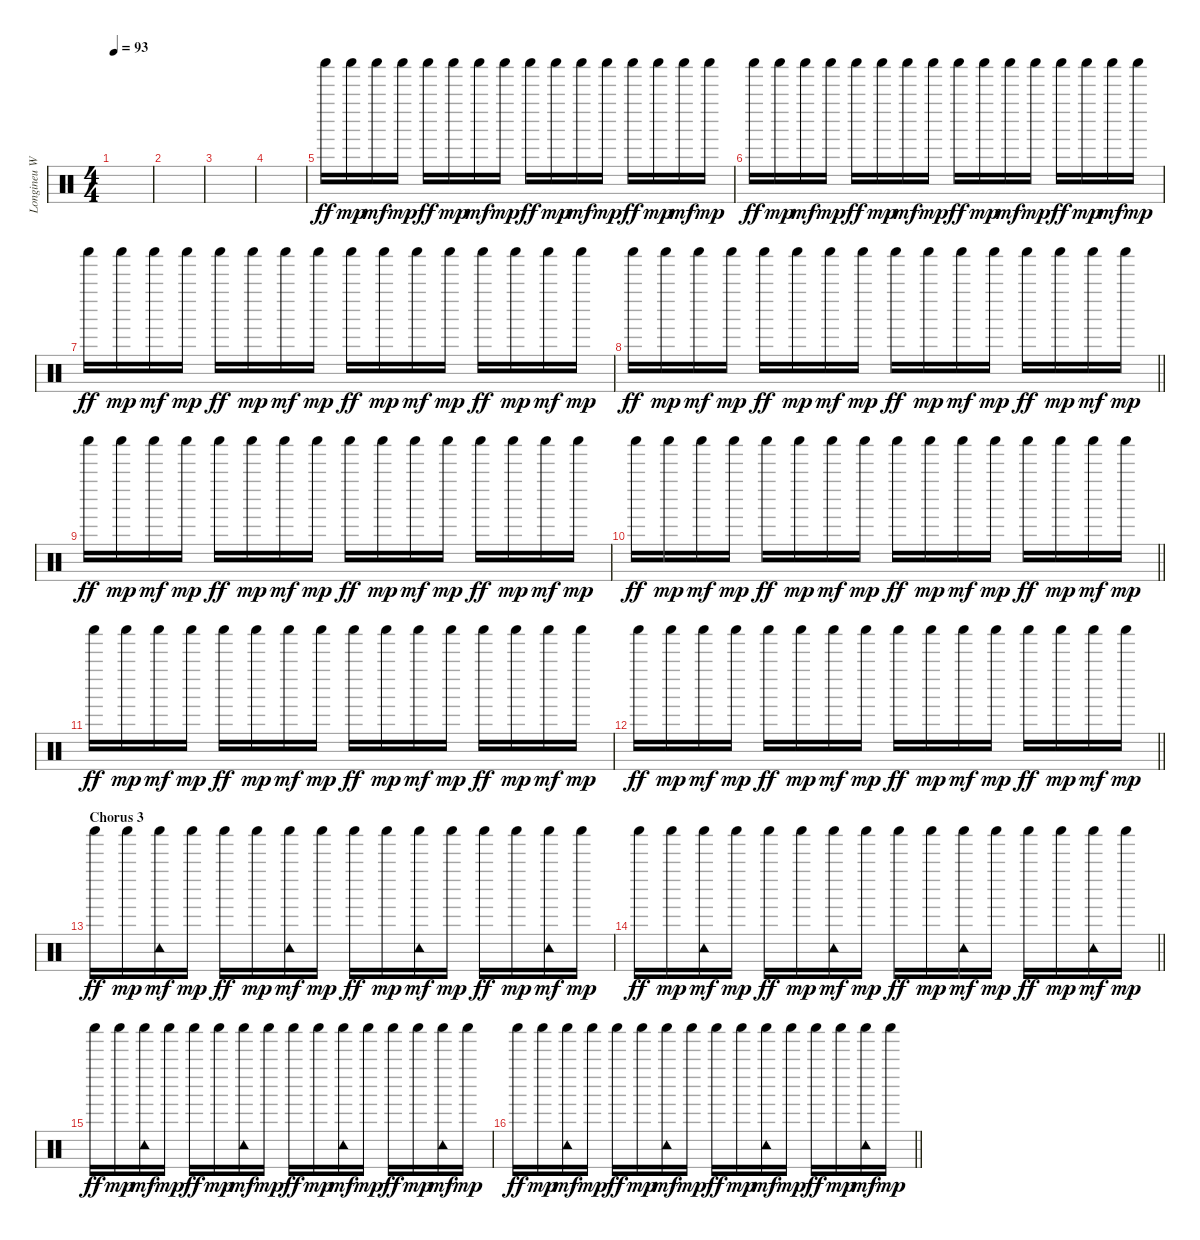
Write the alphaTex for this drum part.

\track ("Longineu W. Parsons |||" "Longineu W") {instrument percussion}
\staff {score}
\articulation defaults
\ts (4 4)
\tempo 93
\clef neutral
\ks c
|
|
|
|
"Shaker (hit)".16{dy ff} "Shaker (hit)".16{dy mp} "Shaker (hit)".16{dy mf} "Shaker (hit)".16{dy mp} "Shaker (hit)".16{dy ff} "Shaker (hit)".16{dy mp} "Shaker (hit)".16{dy mf} "Shaker (hit)".16{dy mp} "Shaker (hit)".16{dy ff} "Shaker (hit)".16{dy mp} "Shaker (hit)".16{dy mf} "Shaker (hit)".16{dy mp} "Shaker (hit)".16{dy ff} "Shaker (hit)".16{dy mp} "Shaker (hit)".16{dy mf} "Shaker (hit)".16{dy mp} |
"Shaker (hit)".16{dy ff} "Shaker (hit)".16{dy mp} "Shaker (hit)".16{dy mf} "Shaker (hit)".16{dy mp} "Shaker (hit)".16{dy ff} "Shaker (hit)".16{dy mp} "Shaker (hit)".16{dy mf} "Shaker (hit)".16{dy mp} "Shaker (hit)".16{dy ff} "Shaker (hit)".16{dy mp} "Shaker (hit)".16{dy mf} "Shaker (hit)".16{dy mp} "Shaker (hit)".16{dy ff} "Shaker (hit)".16{dy mp} "Shaker (hit)".16{dy mf} "Shaker (hit)".16{dy mp} |
"Shaker (hit)".16{dy ff} "Shaker (hit)".16{dy mp} "Shaker (hit)".16{dy mf} "Shaker (hit)".16{dy mp} "Shaker (hit)".16{dy ff} "Shaker (hit)".16{dy mp} "Shaker (hit)".16{dy mf} "Shaker (hit)".16{dy mp} "Shaker (hit)".16{dy ff} "Shaker (hit)".16{dy mp} "Shaker (hit)".16{dy mf} "Shaker (hit)".16{dy mp} "Shaker (hit)".16{dy ff} "Shaker (hit)".16{dy mp} "Shaker (hit)".16{dy mf} "Shaker (hit)".16{dy mp} |
\barLineRight lightlight "Shaker (hit)".16{dy ff} "Shaker (hit)".16{dy mp} "Shaker (hit)".16{dy mf} "Shaker (hit)".16{dy mp} "Shaker (hit)".16{dy ff} "Shaker (hit)".16{dy mp} "Shaker (hit)".16{dy mf} "Shaker (hit)".16{dy mp} "Shaker (hit)".16{dy ff} "Shaker (hit)".16{dy mp} "Shaker (hit)".16{dy mf} "Shaker (hit)".16{dy mp} "Shaker (hit)".16{dy ff} "Shaker (hit)".16{dy mp} "Shaker (hit)".16{dy mf} "Shaker (hit)".16{dy mp}
|
"Shaker (hit)".16{dy ff} "Shaker (hit)".16{dy mp} "Shaker (hit)".16{dy mf} "Shaker (hit)".16{dy mp} "Shaker (hit)".16{dy ff} "Shaker (hit)".16{dy mp} "Shaker (hit)".16{dy mf} "Shaker (hit)".16{dy mp} "Shaker (hit)".16{dy ff} "Shaker (hit)".16{dy mp} "Shaker (hit)".16{dy mf} "Shaker (hit)".16{dy mp} "Shaker (hit)".16{dy ff} "Shaker (hit)".16{dy mp} "Shaker (hit)".16{dy mf} "Shaker (hit)".16{dy mp} |
\barLineRight lightlight "Shaker (hit)".16{dy ff} "Shaker (hit)".16{dy mp} "Shaker (hit)".16{dy mf} "Shaker (hit)".16{dy mp} "Shaker (hit)".16{dy ff} "Shaker (hit)".16{dy mp} "Shaker (hit)".16{dy mf} "Shaker (hit)".16{dy mp} "Shaker (hit)".16{dy ff} "Shaker (hit)".16{dy mp} "Shaker (hit)".16{dy mf} "Shaker (hit)".16{dy mp} "Shaker (hit)".16{dy ff} "Shaker (hit)".16{dy mp} "Shaker (hit)".16{dy mf} "Shaker (hit)".16{dy mp}
|
"Shaker (hit)".16{dy ff} "Shaker (hit)".16{dy mp} "Shaker (hit)".16{dy mf} "Shaker (hit)".16{dy mp} "Shaker (hit)".16{dy ff} "Shaker (hit)".16{dy mp} "Shaker (hit)".16{dy mf} "Shaker (hit)".16{dy mp} "Shaker (hit)".16{dy ff} "Shaker (hit)".16{dy mp} "Shaker (hit)".16{dy mf} "Shaker (hit)".16{dy mp} "Shaker (hit)".16{dy ff} "Shaker (hit)".16{dy mp} "Shaker (hit)".16{dy mf} "Shaker (hit)".16{dy mp} |
\barLineRight lightlight "Shaker (hit)".16{dy ff} "Shaker (hit)".16{dy mp} "Shaker (hit)".16{dy mf} "Shaker (hit)".16{dy mp} "Shaker (hit)".16{dy ff} "Shaker (hit)".16{dy mp} "Shaker (hit)".16{dy mf} "Shaker (hit)".16{dy mp} "Shaker (hit)".16{dy ff} "Shaker (hit)".16{dy mp} "Shaker (hit)".16{dy mf} "Shaker (hit)".16{dy mp} "Shaker (hit)".16{dy ff} "Shaker (hit)".16{dy mp} "Shaker (hit)".16{dy mf} "Shaker (hit)".16{dy mp}
|
\section ("" "Chorus 3")
"Shaker (hit)".16{dy ff} "Shaker (hit)".16{dy mp} ("Tambourine (hit)" "Shaker (hit)").16{dy mf} "Shaker (hit)".16{dy mp} "Shaker (hit)".16{dy ff} "Shaker (hit)".16{dy mp} ("Tambourine (hit)" "Shaker (hit)").16{dy mf} "Shaker (hit)".16{dy mp} "Shaker (hit)".16{dy ff} "Shaker (hit)".16{dy mp} ("Tambourine (hit)" "Shaker (hit)").16{dy mf} "Shaker (hit)".16{dy mp} "Shaker (hit)".16{dy ff} "Shaker (hit)".16{dy mp} ("Tambourine (hit)" "Shaker (hit)").16{dy mf} "Shaker (hit)".16{dy mp} |
\barLineRight lightlight "Shaker (hit)".16{dy ff} "Shaker (hit)".16{dy mp}
("Tambourine (hit)" "Shaker (hit)").16{dy mf} "Shaker (hit)".16{dy mp} "Shaker (hit)".16{dy ff} "Shaker (hit)".16{dy mp} ("Tambourine (hit)" "Shaker (hit)").16{dy mf} "Shaker (hit)".16{dy mp} "Shaker (hit)".16{dy ff} "Shaker (hit)".16{dy mp} ("Tambourine (hit)" "Shaker (hit)").16{dy mf} "Shaker (hit)".16{dy mp} "Shaker (hit)".16{dy ff} "Shaker (hit)".16{dy mp} ("Tambourine (hit)" "Shaker (hit)").16{dy mf} "Shaker (hit)".16{dy mp} |
"Shaker (hit)".16{dy ff} "Shaker (hit)".16{dy mp} ("Tambourine (hit)" "Shaker (hit)").16{dy mf} "Shaker (hit)".16{dy mp} "Shaker (hit)".16{dy ff} "Shaker (hit)".16{dy mp} ("Tambourine (hit)" "Shaker (hit)").16{dy mf} "Shaker (hit)".16{dy mp} "Shaker (hit)".16{dy ff} "Shaker (hit)".16{dy mp} ("Tambourine (hit)" "Shaker (hit)").16{dy mf} "Shaker (hit)".16{dy mp} "Shaker (hit)".16{dy ff} "Shaker (hit)".16{dy mp} ("Tambourine (hit)" "Shaker (hit)").16{dy mf} "Shaker (hit)".16{dy mp} |
\barLineRight lightlight "Shaker (hit)".16{dy ff} "Shaker (hit)".16{dy mp}
("Tambourine (hit)" "Shaker (hit)").16{dy mf} "Shaker (hit)".16{dy mp} "Shaker (hit)".16{dy ff} "Shaker (hit)".16{dy mp} ("Tambourine (hit)" "Shaker (hit)").16{dy mf} "Shaker (hit)".16{dy mp} "Shaker (hit)".16{dy ff} "Shaker (hit)".16{dy mp} ("Tambourine (hit)" "Shaker (hit)").16{dy mf} "Shaker (hit)".16{dy mp} "Shaker (hit)".16{dy ff} "Shaker (hit)".16{dy mp} ("Tambourine (hit)" "Shaker (hit)").16{dy mf} "Shaker (hit)".16{dy mp}
